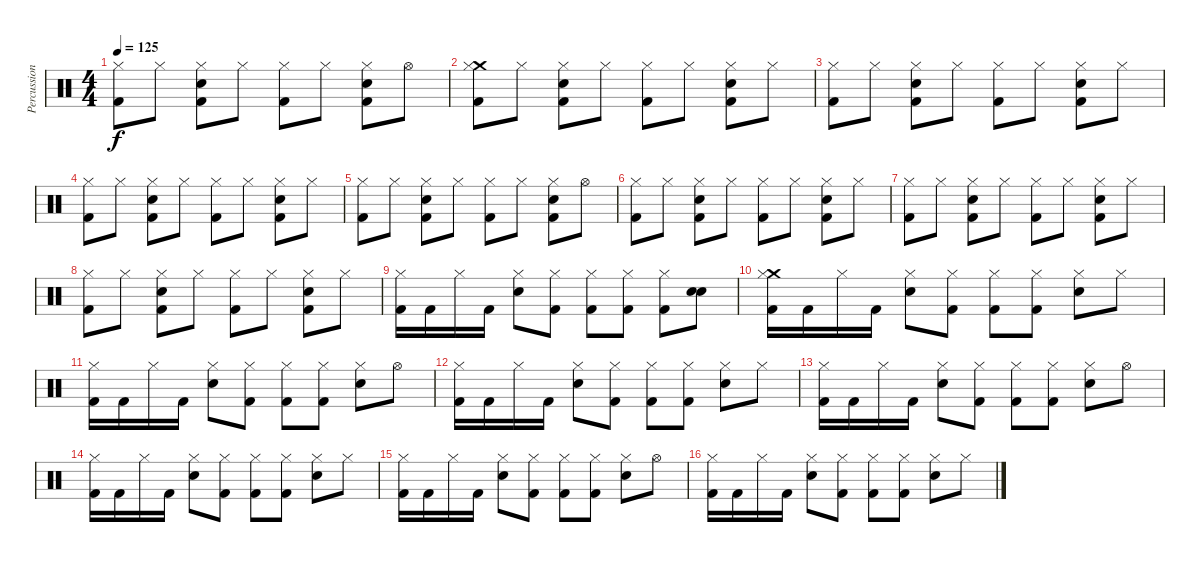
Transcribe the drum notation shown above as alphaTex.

\track ("Percussion" "Percussion") {instrument percussion}
\staff {score}
\articulation defaults
\ts (4 4)
\tempo 125
\clef neutral
\ks c
("Hi-Hat (closed)" "Kick (hit) 2").8{dy f} "Hi-Hat (closed)".8 ("Hi-Hat (closed)" "Electric Snare (hit)" "Kick (hit) 2").8 "Hi-Hat (closed)".8 ("Hi-Hat (closed)" "Kick (hit) 2").8 "Hi-Hat (closed)".8 ("Hi-Hat (closed)" "Electric Snare (hit)" "Kick (hit) 2").8 "Hi-Hat (open)".8 |
("Crash medium (hit)" "Hi-Hat (closed)" "Kick (hit) 2").8 "Hi-Hat (closed)".8 ("Hi-Hat (closed)" "Electric Snare (hit)" "Kick (hit) 2").8 "Hi-Hat (closed)".8 ("Hi-Hat (closed)" "Kick (hit) 2").8 "Hi-Hat (closed)".8 ("Hi-Hat (closed)" "Electric Snare (hit)" "Kick (hit) 2").8 "Hi-Hat (closed)".8 |
("Hi-Hat (closed)" "Kick (hit) 2").8 "Hi-Hat (closed)".8 ("Hi-Hat (closed)" "Electric Snare (hit)" "Kick (hit) 2").8 "Hi-Hat (closed)".8 ("Hi-Hat (closed)" "Kick (hit) 2").8 "Hi-Hat (closed)".8 ("Hi-Hat (closed)" "Electric Snare (hit)" "Kick (hit) 2").8 "Hi-Hat (closed)".8 |
("Hi-Hat (closed)" "Kick (hit) 2").8 "Hi-Hat (closed)".8 ("Hi-Hat (closed)" "Electric Snare (hit)" "Kick (hit) 2").8 "Hi-Hat (closed)".8 ("Hi-Hat (closed)" "Kick (hit) 2").8 "Hi-Hat (closed)".8 ("Hi-Hat (closed)" "Electric Snare (hit)" "Kick (hit) 2").8 "Hi-Hat (closed)".8 |
("Hi-Hat (closed)" "Kick (hit) 2").8 "Hi-Hat (closed)".8 ("Hi-Hat (closed)" "Electric Snare (hit)" "Kick (hit) 2").8 "Hi-Hat (closed)".8 ("Hi-Hat (closed)" "Kick (hit) 2").8 "Hi-Hat (closed)".8 ("Hi-Hat (closed)" "Electric Snare (hit)" "Kick (hit) 2").8 "Hi-Hat (open)".8 |
("Hi-Hat (closed)" "Kick (hit) 2").8 "Hi-Hat (closed)".8 ("Hi-Hat (closed)" "Electric Snare (hit)" "Kick (hit) 2").8 "Hi-Hat (closed)".8 ("Hi-Hat (closed)" "Kick (hit) 2").8 "Hi-Hat (closed)".8 ("Hi-Hat (closed)" "Electric Snare (hit)" "Kick (hit) 2").8 "Hi-Hat (closed)".8 |
("Hi-Hat (closed)" "Kick (hit) 2").8 "Hi-Hat (closed)".8 ("Hi-Hat (closed)" "Electric Snare (hit)" "Kick (hit) 2").8 "Hi-Hat (closed)".8 ("Hi-Hat (closed)" "Kick (hit) 2").8 "Hi-Hat (closed)".8 ("Hi-Hat (closed)" "Electric Snare (hit)" "Kick (hit) 2").8 "Hi-Hat (closed)".8 |
("Hi-Hat (closed)" "Kick (hit) 2").8 "Hi-Hat (closed)".8 ("Hi-Hat (closed)" "Electric Snare (hit)" "Kick (hit) 2").8 "Hi-Hat (closed)".8 ("Hi-Hat (closed)" "Kick (hit) 2").8 "Hi-Hat (closed)".8 ("Hi-Hat (closed)" "Electric Snare (hit)" "Kick (hit) 2").8 "Hi-Hat (closed)".8 |
("Hi-Hat (closed)" "Kick (hit) 2").16 "Kick (hit) 2".16 "Hi-Hat (closed)".16 "Kick (hit) 2".16 ("Hi-Hat (closed)" "Electric Snare (hit)").8 ("Hi-Hat (closed)" "Kick (hit) 2").8 ("Hi-Hat (closed)" "Kick (hit) 2").8 ("Hi-Hat (closed)" "Kick (hit) 2").8 ("Hi-Hat (closed)" "Kick (hit) 2").8 ("Electric Snare (hit)" "Electric Snare (hit)").8 |
("Crash medium (hit)" "Hi-Hat (closed)" "Kick (hit) 2").16 "Kick (hit) 2".16 "Hi-Hat (closed)".16 "Kick (hit) 2".16 ("Hi-Hat (closed)" "Electric Snare (hit)").8 ("Hi-Hat (closed)" "Kick (hit) 2").8 ("Hi-Hat (closed)" "Kick (hit) 2").8 ("Hi-Hat (closed)" "Kick (hit) 2").8 ("Hi-Hat (closed)" "Electric Snare (hit)").8 "Hi-Hat (closed)".8 |
("Hi-Hat (closed)" "Kick (hit) 2").16 "Kick (hit) 2".16 "Hi-Hat (closed)".16 "Kick (hit) 2".16 ("Hi-Hat (closed)" "Electric Snare (hit)").8 ("Hi-Hat (closed)" "Kick (hit) 2").8 ("Hi-Hat (closed)" "Kick (hit) 2").8 ("Hi-Hat (closed)" "Kick (hit) 2").8 ("Hi-Hat (closed)" "Electric Snare (hit)").8 "Hi-Hat (open)".8 |
("Hi-Hat (closed)" "Kick (hit) 2").16 "Kick (hit) 2".16 "Hi-Hat (closed)".16 "Kick (hit) 2".16 ("Hi-Hat (closed)" "Electric Snare (hit)").8 ("Hi-Hat (closed)" "Kick (hit) 2").8 ("Hi-Hat (closed)" "Kick (hit) 2").8 ("Hi-Hat (closed)" "Kick (hit) 2").8 ("Hi-Hat (closed)" "Electric Snare (hit)").8 "Hi-Hat (closed)".8 |
("Hi-Hat (closed)" "Kick (hit) 2").16 "Kick (hit) 2".16 "Hi-Hat (closed)".16 "Kick (hit) 2".16 ("Hi-Hat (closed)" "Electric Snare (hit)").8 ("Hi-Hat (closed)" "Kick (hit) 2").8 ("Hi-Hat (closed)" "Kick (hit) 2").8 ("Hi-Hat (closed)" "Kick (hit) 2").8 ("Hi-Hat (closed)" "Electric Snare (hit)").8 "Hi-Hat (open)".8 |
("Hi-Hat (closed)" "Kick (hit) 2").16 "Kick (hit) 2".16 "Hi-Hat (closed)".16 "Kick (hit) 2".16 ("Hi-Hat (closed)" "Electric Snare (hit)").8 ("Hi-Hat (closed)" "Kick (hit) 2").8 ("Hi-Hat (closed)" "Kick (hit) 2").8 ("Hi-Hat (closed)" "Kick (hit) 2").8 ("Hi-Hat (closed)" "Electric Snare (hit)").8 "Hi-Hat (closed)".8 |
("Hi-Hat (closed)" "Kick (hit) 2").16 "Kick (hit) 2".16 "Hi-Hat (closed)".16 "Kick (hit) 2".16 ("Hi-Hat (closed)" "Electric Snare (hit)").8 ("Hi-Hat (closed)" "Kick (hit) 2").8 ("Hi-Hat (closed)" "Kick (hit) 2").8 ("Hi-Hat (closed)" "Kick (hit) 2").8 ("Hi-Hat (closed)" "Electric Snare (hit)").8 "Hi-Hat (open)".8 |
("Hi-Hat (closed)" "Kick (hit) 2").16 "Kick (hit) 2".16 "Hi-Hat (closed)".16 "Kick (hit) 2".16 ("Hi-Hat (closed)" "Electric Snare (hit)").8 ("Hi-Hat (closed)" "Kick (hit) 2").8 ("Hi-Hat (closed)" "Kick (hit) 2").8 ("Hi-Hat (closed)" "Kick (hit) 2").8 ("Hi-Hat (closed)" "Electric Snare (hit)").8 "Hi-Hat (closed)".8
